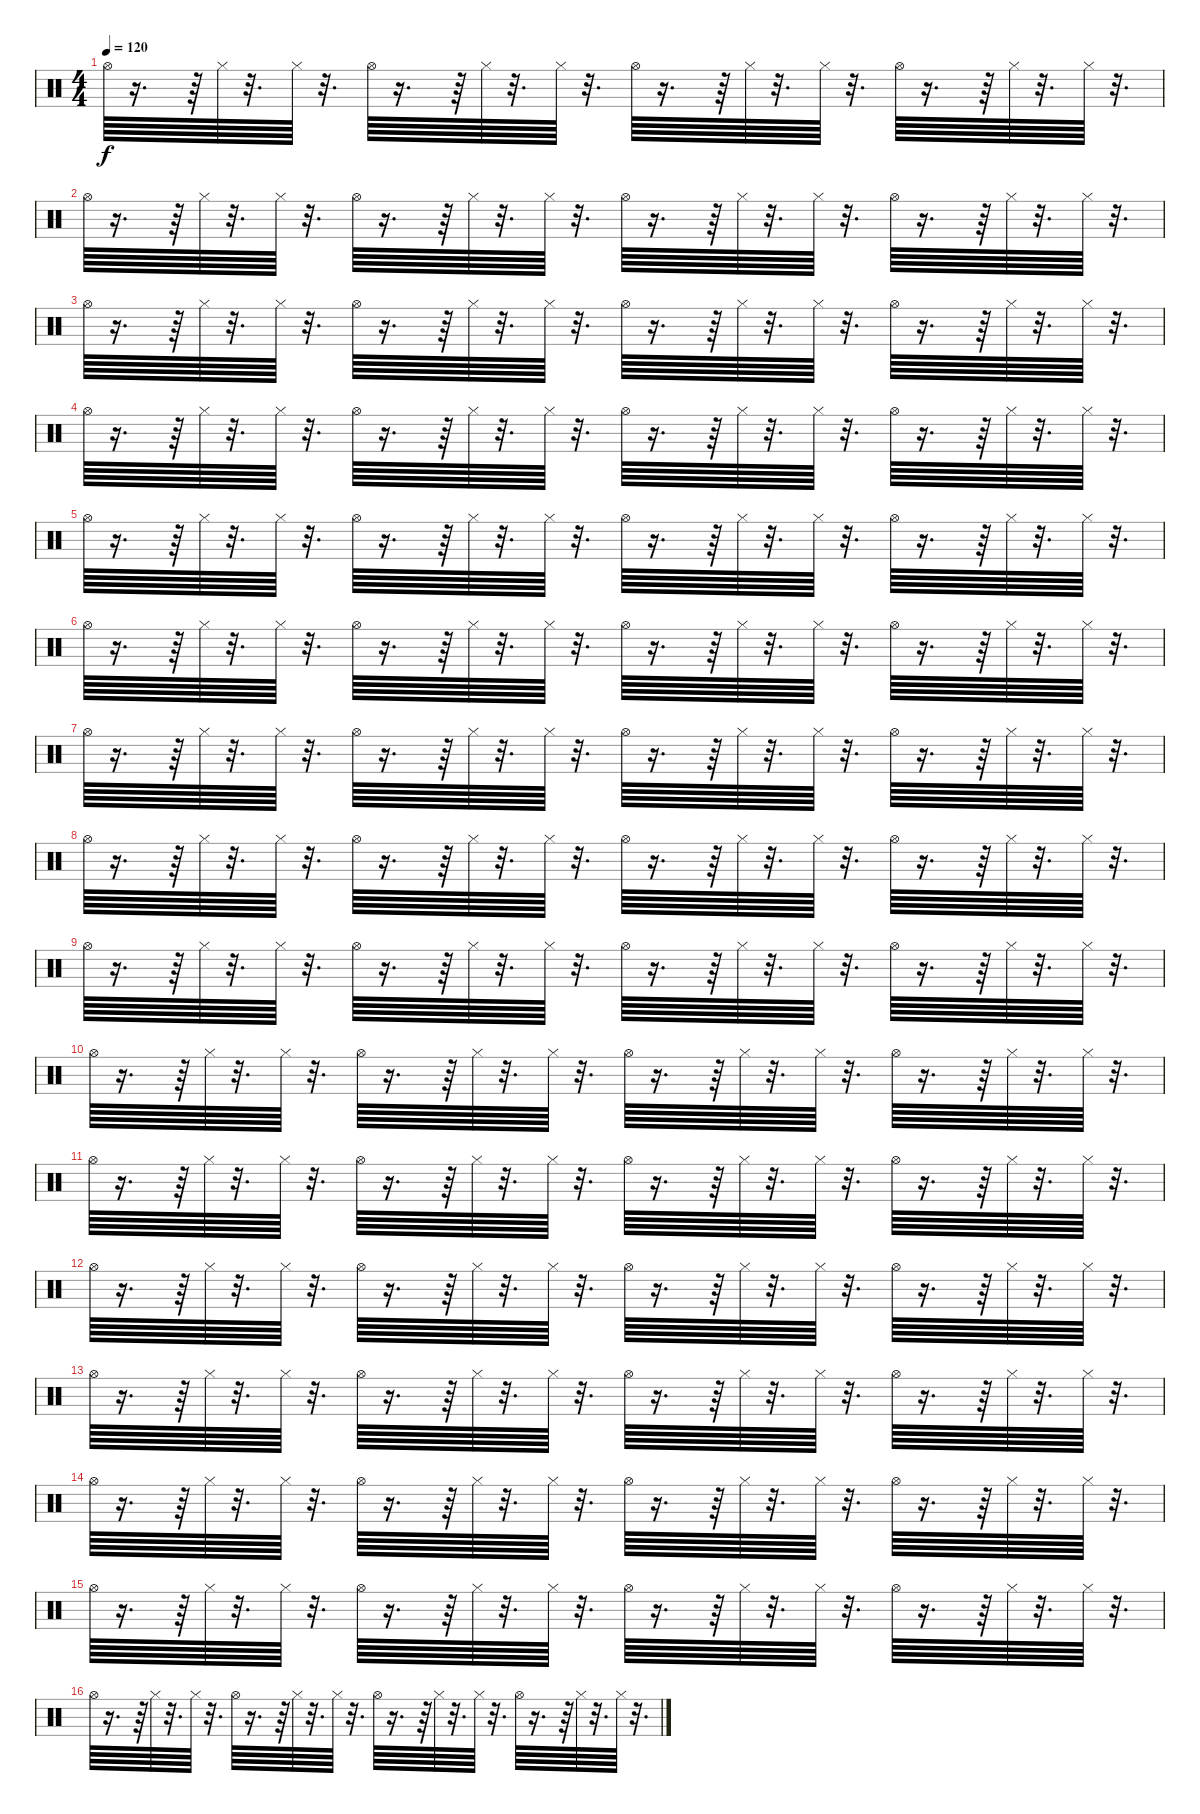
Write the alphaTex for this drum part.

\track "" {instrument percussion}
\staff {score}
\articulation defaults
\ts (4 4)
\tempo 120
\tempo 95
\tempo 120
\clef neutral
\ks c "Hi-Hat (open)".64{dy f}
r.16{d} r.64 "Hi-Hat (closed)".64 r.32{d} "Hi-Hat (closed)".64 r.32{d} "Hi-Hat (open)".64 r.16{d} r.64 "Hi-Hat (closed)".64 r.32{d} "Hi-Hat (closed)".64 r.32{d} "Hi-Hat (open)".64 r.16{d} r.64 "Hi-Hat (closed)".64 r.32{d} "Hi-Hat (closed)".64 r.32{d} "Hi-Hat (open)".64 r.16{d} r.64 "Hi-Hat (closed)".64 r.32{d} "Hi-Hat (closed)".64 r.32{d} |
"Hi-Hat (open)".64 r.16{d} r.64 "Hi-Hat (closed)".64 r.32{d} "Hi-Hat (closed)".64 r.32{d} "Hi-Hat (open)".64 r.16{d} r.64 "Hi-Hat (closed)".64 r.32{d} "Hi-Hat (closed)".64 r.32{d} "Hi-Hat (open)".64 r.16{d} r.64 "Hi-Hat (closed)".64 r.32{d} "Hi-Hat (closed)".64 r.32{d} "Hi-Hat (open)".64 r.16{d} r.64 "Hi-Hat (closed)".64 r.32{d} "Hi-Hat (closed)".64 r.32{d} |
"Hi-Hat (open)".64 r.16{d} r.64 "Hi-Hat (closed)".64 r.32{d} "Hi-Hat (closed)".64 r.32{d} "Hi-Hat (open)".64 r.16{d} r.64 "Hi-Hat (closed)".64 r.32{d} "Hi-Hat (closed)".64 r.32{d} "Hi-Hat (open)".64 r.16{d} r.64 "Hi-Hat (closed)".64 r.32{d} "Hi-Hat (closed)".64 r.32{d} "Hi-Hat (open)".64 r.16{d} r.64 "Hi-Hat (closed)".64 r.32{d} "Hi-Hat (closed)".64 r.32{d} |
"Hi-Hat (open)".64 r.16{d} r.64 "Hi-Hat (closed)".64 r.32{d} "Hi-Hat (closed)".64 r.32{d} "Hi-Hat (open)".64 r.16{d} r.64 "Hi-Hat (closed)".64 r.32{d} "Hi-Hat (closed)".64 r.32{d} "Hi-Hat (open)".64 r.16{d} r.64 "Hi-Hat (closed)".64 r.32{d} "Hi-Hat (closed)".64 r.32{d} "Hi-Hat (open)".64 r.16{d} r.64 "Hi-Hat (closed)".64 r.32{d} "Hi-Hat (closed)".64 r.32{d} |
"Hi-Hat (open)".64 r.16{d} r.64 "Hi-Hat (closed)".64 r.32{d} "Hi-Hat (closed)".64 r.32{d} "Hi-Hat (open)".64 r.16{d} r.64 "Hi-Hat (closed)".64 r.32{d} "Hi-Hat (closed)".64 r.32{d} "Hi-Hat (open)".64 r.16{d} r.64 "Hi-Hat (closed)".64 r.32{d} "Hi-Hat (closed)".64 r.32{d} "Hi-Hat (open)".64 r.16{d} r.64 "Hi-Hat (closed)".64 r.32{d} "Hi-Hat (closed)".64 r.32{d} |
"Hi-Hat (open)".64 r.16{d} r.64 "Hi-Hat (closed)".64 r.32{d} "Hi-Hat (closed)".64 r.32{d} "Hi-Hat (open)".64 r.16{d} r.64 "Hi-Hat (closed)".64 r.32{d} "Hi-Hat (closed)".64 r.32{d} "Hi-Hat (open)".64 r.16{d} r.64 "Hi-Hat (closed)".64 r.32{d} "Hi-Hat (closed)".64 r.32{d} "Hi-Hat (open)".64 r.16{d} r.64 "Hi-Hat (closed)".64 r.32{d} "Hi-Hat (closed)".64 r.32{d} |
"Hi-Hat (open)".64 r.16{d} r.64 "Hi-Hat (closed)".64 r.32{d} "Hi-Hat (closed)".64 r.32{d} "Hi-Hat (open)".64 r.16{d} r.64 "Hi-Hat (closed)".64 r.32{d} "Hi-Hat (closed)".64 r.32{d} "Hi-Hat (open)".64 r.16{d} r.64 "Hi-Hat (closed)".64 r.32{d} "Hi-Hat (closed)".64 r.32{d} "Hi-Hat (open)".64 r.16{d} r.64 "Hi-Hat (closed)".64 r.32{d} "Hi-Hat (closed)".64 r.32{d} |
"Hi-Hat (open)".64 r.16{d} r.64 "Hi-Hat (closed)".64 r.32{d} "Hi-Hat (closed)".64 r.32{d} "Hi-Hat (open)".64 r.16{d} r.64 "Hi-Hat (closed)".64 r.32{d} "Hi-Hat (closed)".64 r.32{d} "Hi-Hat (open)".64 r.16{d} r.64 "Hi-Hat (closed)".64 r.32{d} "Hi-Hat (closed)".64 r.32{d} "Hi-Hat (open)".64 r.16{d} r.64 "Hi-Hat (closed)".64 r.32{d} "Hi-Hat (closed)".64 r.32{d} |
"Hi-Hat (open)".64 r.16{d} r.64 "Hi-Hat (closed)".64 r.32{d} "Hi-Hat (closed)".64 r.32{d} "Hi-Hat (open)".64 r.16{d} r.64 "Hi-Hat (closed)".64 r.32{d} "Hi-Hat (closed)".64 r.32{d} "Hi-Hat (open)".64 r.16{d} r.64 "Hi-Hat (closed)".64 r.32{d} "Hi-Hat (closed)".64 r.32{d} "Hi-Hat (open)".64 r.16{d} r.64 "Hi-Hat (closed)".64 r.32{d} "Hi-Hat (closed)".64 r.32{d} |
"Hi-Hat (open)".64 r.16{d} r.64 "Hi-Hat (closed)".64 r.32{d} "Hi-Hat (closed)".64 r.32{d} "Hi-Hat (open)".64 r.16{d} r.64 "Hi-Hat (closed)".64 r.32{d} "Hi-Hat (closed)".64 r.32{d} "Hi-Hat (open)".64 r.16{d} r.64 "Hi-Hat (closed)".64 r.32{d} "Hi-Hat (closed)".64 r.32{d} "Hi-Hat (open)".64 r.16{d} r.64 "Hi-Hat (closed)".64 r.32{d} "Hi-Hat (closed)".64 r.32{d} |
"Hi-Hat (open)".64 r.16{d} r.64 "Hi-Hat (closed)".64 r.32{d} "Hi-Hat (closed)".64 r.32{d} "Hi-Hat (open)".64 r.16{d} r.64 "Hi-Hat (closed)".64 r.32{d} "Hi-Hat (closed)".64 r.32{d} "Hi-Hat (open)".64 r.16{d} r.64 "Hi-Hat (closed)".64 r.32{d} "Hi-Hat (closed)".64 r.32{d} "Hi-Hat (open)".64 r.16{d} r.64 "Hi-Hat (closed)".64 r.32{d} "Hi-Hat (closed)".64 r.32{d} |
"Hi-Hat (open)".64 r.16{d} r.64 "Hi-Hat (closed)".64 r.32{d} "Hi-Hat (closed)".64 r.32{d} "Hi-Hat (open)".64 r.16{d} r.64 "Hi-Hat (closed)".64 r.32{d} "Hi-Hat (closed)".64 r.32{d} "Hi-Hat (open)".64 r.16{d} r.64 "Hi-Hat (closed)".64 r.32{d} "Hi-Hat (closed)".64 r.32{d} "Hi-Hat (open)".64 r.16{d} r.64 "Hi-Hat (closed)".64 r.32{d} "Hi-Hat (closed)".64 r.32{d} |
"Hi-Hat (open)".64 r.16{d} r.64 "Hi-Hat (closed)".64 r.32{d} "Hi-Hat (closed)".64 r.32{d} "Hi-Hat (open)".64 r.16{d} r.64 "Hi-Hat (closed)".64 r.32{d} "Hi-Hat (closed)".64 r.32{d} "Hi-Hat (open)".64 r.16{d} r.64 "Hi-Hat (closed)".64 r.32{d} "Hi-Hat (closed)".64 r.32{d} "Hi-Hat (open)".64 r.16{d} r.64 "Hi-Hat (closed)".64 r.32{d} "Hi-Hat (closed)".64 r.32{d} |
"Hi-Hat (open)".64 r.16{d} r.64 "Hi-Hat (closed)".64 r.32{d} "Hi-Hat (closed)".64 r.32{d} "Hi-Hat (open)".64 r.16{d} r.64 "Hi-Hat (closed)".64 r.32{d} "Hi-Hat (closed)".64 r.32{d} "Hi-Hat (open)".64 r.16{d} r.64 "Hi-Hat (closed)".64 r.32{d} "Hi-Hat (closed)".64 r.32{d} "Hi-Hat (open)".64 r.16{d} r.64 "Hi-Hat (closed)".64 r.32{d} "Hi-Hat (closed)".64 r.32{d} |
"Hi-Hat (open)".64 r.16{d} r.64 "Hi-Hat (closed)".64 r.32{d} "Hi-Hat (closed)".64 r.32{d} "Hi-Hat (open)".64 r.16{d} r.64 "Hi-Hat (closed)".64 r.32{d} "Hi-Hat (closed)".64 r.32{d} "Hi-Hat (open)".64 r.16{d} r.64 "Hi-Hat (closed)".64 r.32{d} "Hi-Hat (closed)".64 r.32{d} "Hi-Hat (open)".64 r.16{d} r.64 "Hi-Hat (closed)".64 r.32{d} "Hi-Hat (closed)".64 r.32{d} |
"Hi-Hat (open)".64 r.16{d} r.64 "Hi-Hat (closed)".64 r.32{d} "Hi-Hat (closed)".64 r.32{d} "Hi-Hat (open)".64 r.16{d} r.64 "Hi-Hat (closed)".64 r.32{d} "Hi-Hat (closed)".64 r.32{d} "Hi-Hat (open)".64 r.16{d} r.64 "Hi-Hat (closed)".64 r.32{d} "Hi-Hat (closed)".64 r.32{d} "Hi-Hat (open)".64 r.16{d} r.64 "Hi-Hat (closed)".64 r.32{d} "Hi-Hat (closed)".64 r.32{d}
